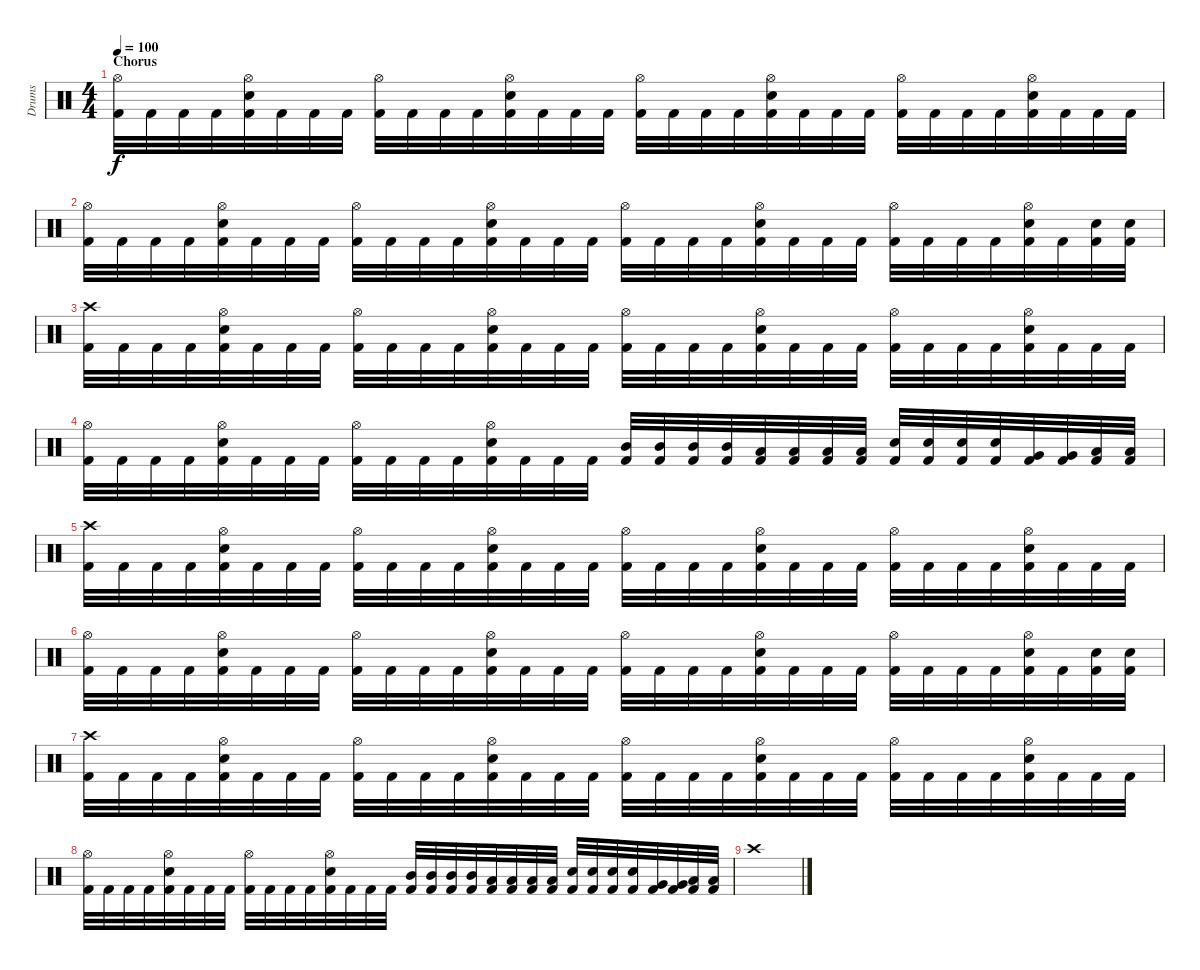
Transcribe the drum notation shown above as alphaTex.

\track ("Drums" "Drums") {instrument percussion}
\staff {score}
\articulation defaults
\ts (4 4)
\section ("" "Chorus")
\tempo 100
\clef neutral
\ks c
("Hi-Hat (open)" "Kick (hit) 2").32{dy f} "Kick (hit) 2".32 "Kick (hit) 2".32 "Kick (hit) 2".32 ("Hi-Hat (open)" "Electric Snare (hit)" "Kick (hit) 2").32 "Kick (hit) 2".32 "Kick (hit) 2".32 "Kick (hit) 2".32 ("Hi-Hat (open)" "Kick (hit) 2").32 "Kick (hit) 2".32 "Kick (hit) 2".32 "Kick (hit) 2".32 ("Hi-Hat (open)" "Electric Snare (hit)" "Kick (hit) 2").32 "Kick (hit) 2".32 "Kick (hit) 2".32 "Kick (hit) 2".32 ("Hi-Hat (open)" "Kick (hit) 2").32 "Kick (hit) 2".32 "Kick (hit) 2".32 "Kick (hit) 2".32 ("Hi-Hat (open)" "Electric Snare (hit)" "Kick (hit) 2").32 "Kick (hit) 2".32 "Kick (hit) 2".32 "Kick (hit) 2".32 ("Hi-Hat (open)" "Kick (hit) 2").32 "Kick (hit) 2".32 "Kick (hit) 2".32 "Kick (hit) 2".32 ("Hi-Hat (open)" "Electric Snare (hit)" "Kick (hit) 2").32 "Kick (hit) 2".32 "Kick (hit) 2".32 "Kick (hit) 2".32 |
("Hi-Hat (open)" "Kick (hit) 2").32 "Kick (hit) 2".32 "Kick (hit) 2".32 "Kick (hit) 2".32 ("Hi-Hat (open)" "Electric Snare (hit)" "Kick (hit) 2").32 "Kick (hit) 2".32 "Kick (hit) 2".32 "Kick (hit) 2".32 ("Hi-Hat (open)" "Kick (hit) 2").32 "Kick (hit) 2".32 "Kick (hit) 2".32 "Kick (hit) 2".32 ("Hi-Hat (open)" "Electric Snare (hit)" "Kick (hit) 2").32 "Kick (hit) 2".32 "Kick (hit) 2".32 "Kick (hit) 2".32 ("Hi-Hat (open)" "Kick (hit) 2").32 "Kick (hit) 2".32 "Kick (hit) 2".32 "Kick (hit) 2".32 ("Hi-Hat (open)" "Electric Snare (hit)" "Kick (hit) 2").32 "Kick (hit) 2".32 "Kick (hit) 2".32 "Kick (hit) 2".32 ("Hi-Hat (open)" "Kick (hit) 2").32 "Kick (hit) 2".32 "Kick (hit) 2".32 "Kick (hit) 2".32 ("Hi-Hat (open)" "Electric Snare (hit)" "Kick (hit) 2").32 "Kick (hit) 2".32 ("Electric Snare (hit)" "Kick (hit) 2").32 ("Electric Snare (hit)" "Kick (hit) 2").32 |
("Crash high (hit)" "Kick (hit) 2").32 "Kick (hit) 2".32 "Kick (hit) 2".32 "Kick (hit) 2".32 ("Hi-Hat (open)" "Electric Snare (hit)" "Kick (hit) 2").32 "Kick (hit) 2".32 "Kick (hit) 2".32 "Kick (hit) 2".32 ("Hi-Hat (open)" "Kick (hit) 2").32 "Kick (hit) 2".32 "Kick (hit) 2".32 "Kick (hit) 2".32 ("Hi-Hat (open)" "Electric Snare (hit)" "Kick (hit) 2").32 "Kick (hit) 2".32 "Kick (hit) 2".32 "Kick (hit) 2".32 ("Hi-Hat (open)" "Kick (hit) 2").32 "Kick (hit) 2".32 "Kick (hit) 2".32 "Kick (hit) 2".32 ("Hi-Hat (open)" "Electric Snare (hit)" "Kick (hit) 2").32 "Kick (hit) 2".32 "Kick (hit) 2".32 "Kick (hit) 2".32 ("Hi-Hat (open)" "Kick (hit) 2").32 "Kick (hit) 2".32 "Kick (hit) 2".32 "Kick (hit) 2".32 ("Hi-Hat (open)" "Electric Snare (hit)" "Kick (hit) 2").32 "Kick (hit) 2".32 "Kick (hit) 2".32 "Kick (hit) 2".32 |
("Hi-Hat (open)" "Kick (hit) 2").32 "Kick (hit) 2".32 "Kick (hit) 2".32 "Kick (hit) 2".32 ("Hi-Hat (open)" "Electric Snare (hit)" "Kick (hit) 2").32 "Kick (hit) 2".32 "Kick (hit) 2".32 "Kick (hit) 2".32 ("Hi-Hat (open)" "Kick (hit) 2").32 "Kick (hit) 2".32 "Kick (hit) 2".32 "Kick (hit) 2".32 ("Hi-Hat (open)" "Electric Snare (hit)" "Kick (hit) 2").32 "Kick (hit) 2".32 "Kick (hit) 2".32 "Kick (hit) 2".32 ("Mid Tom (hit)" "Kick (hit) 2").32 ("Mid Tom (hit)" "Kick (hit) 2").32 ("Mid Tom (hit)" "Kick (hit) 2").32 ("Mid Tom (hit)" "Kick (hit) 2").32 ("Low Tom (hit)" "Kick (hit) 2").32 ("Low Tom (hit)" "Kick (hit) 2").32 ("Low Tom (hit)" "Kick (hit) 2").32 ("Low Tom (hit)" "Kick (hit) 2").32 ("Electric Snare (hit)" "Kick (hit) 2").32 ("Electric Snare (hit)" "Kick (hit) 2").32 ("Electric Snare (hit)" "Kick (hit) 2").32 ("Electric Snare (hit)" "Kick (hit) 2").32 ("Very Low Tom (hit)" "Kick (hit) 2").32 ("Very Low Tom (hit)" "Kick (hit) 2").32 ("Low Floor Tom (hit)" "Kick (hit) 2").32 ("Low Floor Tom (hit)" "Kick (hit) 2").32 |
("Crash high (hit)" "Kick (hit) 2").32 "Kick (hit) 2".32 "Kick (hit) 2".32 "Kick (hit) 2".32 ("Hi-Hat (open)" "Electric Snare (hit)" "Kick (hit) 2").32 "Kick (hit) 2".32 "Kick (hit) 2".32 "Kick (hit) 2".32 ("Hi-Hat (open)" "Kick (hit) 2").32 "Kick (hit) 2".32 "Kick (hit) 2".32 "Kick (hit) 2".32 ("Hi-Hat (open)" "Electric Snare (hit)" "Kick (hit) 2").32 "Kick (hit) 2".32 "Kick (hit) 2".32 "Kick (hit) 2".32 ("Hi-Hat (open)" "Kick (hit) 2").32 "Kick (hit) 2".32 "Kick (hit) 2".32 "Kick (hit) 2".32 ("Hi-Hat (open)" "Electric Snare (hit)" "Kick (hit) 2").32 "Kick (hit) 2".32 "Kick (hit) 2".32 "Kick (hit) 2".32 ("Hi-Hat (open)" "Kick (hit) 2").32 "Kick (hit) 2".32 "Kick (hit) 2".32 "Kick (hit) 2".32 ("Hi-Hat (open)" "Electric Snare (hit)" "Kick (hit) 2").32 "Kick (hit) 2".32 "Kick (hit) 2".32 "Kick (hit) 2".32 |
("Hi-Hat (open)" "Kick (hit) 2").32 "Kick (hit) 2".32 "Kick (hit) 2".32 "Kick (hit) 2".32 ("Hi-Hat (open)" "Electric Snare (hit)" "Kick (hit) 2").32 "Kick (hit) 2".32 "Kick (hit) 2".32 "Kick (hit) 2".32 ("Hi-Hat (open)" "Kick (hit) 2").32 "Kick (hit) 2".32 "Kick (hit) 2".32 "Kick (hit) 2".32 ("Hi-Hat (open)" "Electric Snare (hit)" "Kick (hit) 2").32 "Kick (hit) 2".32 "Kick (hit) 2".32 "Kick (hit) 2".32 ("Hi-Hat (open)" "Kick (hit) 2").32 "Kick (hit) 2".32 "Kick (hit) 2".32 "Kick (hit) 2".32 ("Hi-Hat (open)" "Electric Snare (hit)" "Kick (hit) 2").32 "Kick (hit) 2".32 "Kick (hit) 2".32 "Kick (hit) 2".32 ("Hi-Hat (open)" "Kick (hit) 2").32 "Kick (hit) 2".32 "Kick (hit) 2".32 "Kick (hit) 2".32 ("Hi-Hat (open)" "Electric Snare (hit)" "Kick (hit) 2").32 "Kick (hit) 2".32 ("Electric Snare (hit)" "Kick (hit) 2").32 ("Electric Snare (hit)" "Kick (hit) 2").32 |
("Crash high (hit)" "Kick (hit) 2").32 "Kick (hit) 2".32 "Kick (hit) 2".32 "Kick (hit) 2".32 ("Hi-Hat (open)" "Electric Snare (hit)" "Kick (hit) 2").32 "Kick (hit) 2".32 "Kick (hit) 2".32 "Kick (hit) 2".32 ("Hi-Hat (open)" "Kick (hit) 2").32 "Kick (hit) 2".32 "Kick (hit) 2".32 "Kick (hit) 2".32 ("Hi-Hat (open)" "Electric Snare (hit)" "Kick (hit) 2").32 "Kick (hit) 2".32 "Kick (hit) 2".32 "Kick (hit) 2".32 ("Hi-Hat (open)" "Kick (hit) 2").32 "Kick (hit) 2".32 "Kick (hit) 2".32 "Kick (hit) 2".32 ("Hi-Hat (open)" "Electric Snare (hit)" "Kick (hit) 2").32 "Kick (hit) 2".32 "Kick (hit) 2".32 "Kick (hit) 2".32 ("Hi-Hat (open)" "Kick (hit) 2").32 "Kick (hit) 2".32 "Kick (hit) 2".32 "Kick (hit) 2".32 ("Hi-Hat (open)" "Electric Snare (hit)" "Kick (hit) 2").32 "Kick (hit) 2".32 "Kick (hit) 2".32 "Kick (hit) 2".32 |
("Hi-Hat (open)" "Kick (hit) 2").32 "Kick (hit) 2".32 "Kick (hit) 2".32 "Kick (hit) 2".32 ("Hi-Hat (open)" "Electric Snare (hit)" "Kick (hit) 2").32 "Kick (hit) 2".32 "Kick (hit) 2".32 "Kick (hit) 2".32 ("Hi-Hat (open)" "Kick (hit) 2").32 "Kick (hit) 2".32 "Kick (hit) 2".32 "Kick (hit) 2".32 ("Hi-Hat (open)" "Electric Snare (hit)" "Kick (hit) 2").32 "Kick (hit) 2".32 "Kick (hit) 2".32 "Kick (hit) 2".32 ("Mid Tom (hit)" "Kick (hit) 2").32 ("Mid Tom (hit)" "Kick (hit) 2").32 ("Mid Tom (hit)" "Kick (hit) 2").32 ("Mid Tom (hit)" "Kick (hit) 2").32 ("Low Tom (hit)" "Kick (hit) 2").32 ("Low Tom (hit)" "Kick (hit) 2").32 ("Low Tom (hit)" "Kick (hit) 2").32 ("Low Tom (hit)" "Kick (hit) 2").32 ("Electric Snare (hit)" "Kick (hit) 2").32 ("Electric Snare (hit)" "Kick (hit) 2").32 ("Electric Snare (hit)" "Kick (hit) 2").32 ("Electric Snare (hit)" "Kick (hit) 2").32 ("Very Low Tom (hit)" "Kick (hit) 2").32 ("Very Low Tom (hit)" "Kick (hit) 2").32 ("Low Floor Tom (hit)" "Kick (hit) 2").32 ("Low Floor Tom (hit)" "Kick (hit) 2").32 |
"Crash high (hit)".1
